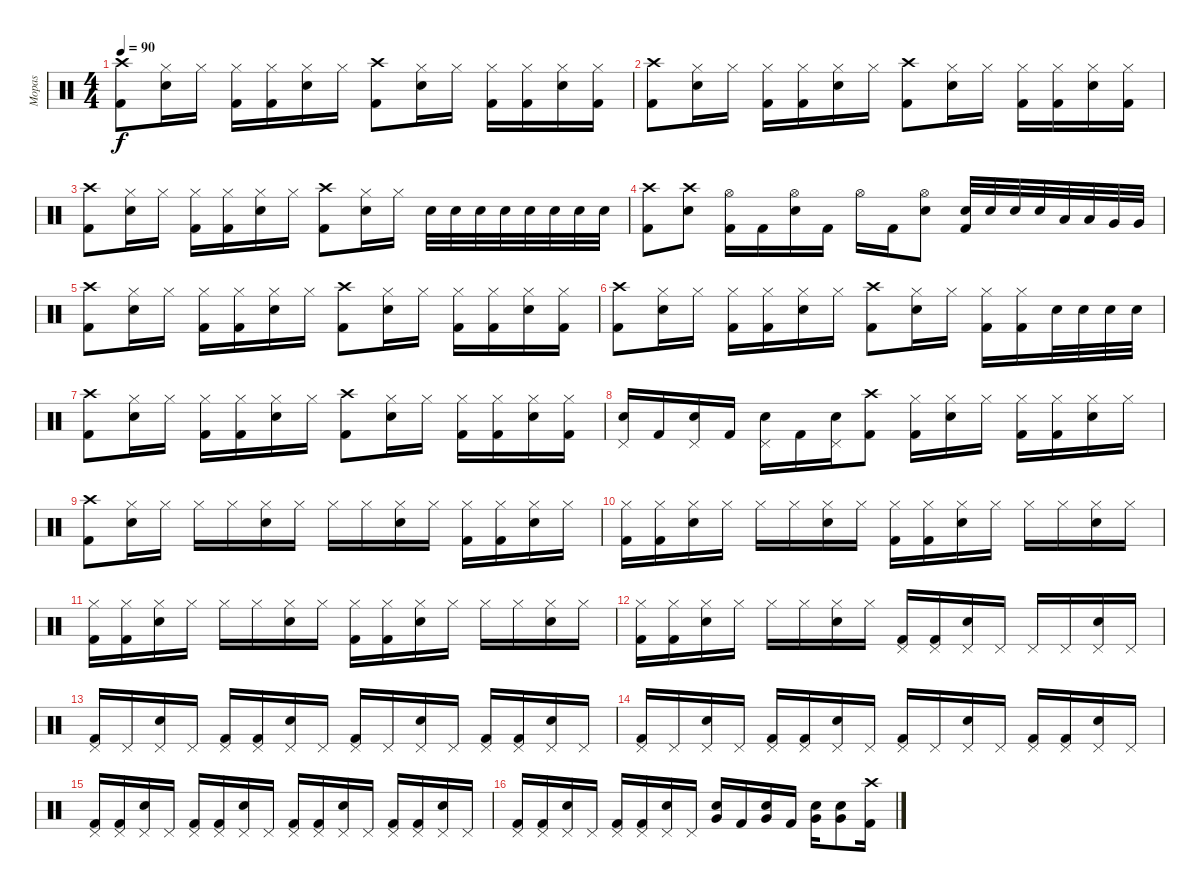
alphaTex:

\track ("Mopas" "Mopas") {instrument percussion}
\staff {score}
\articulation defaults
\ts (4 4)
\tempo 90
\clef neutral
\ks c
("Crash high (hit)" "Kick (hit) 2").8{dy f} ("Hi-Hat (closed)" "Snare (hit) 2").16 "Hi-Hat (closed)".16 ("Hi-Hat (closed)" "Kick (hit) 2").16 ("Hi-Hat (closed)" "Kick (hit) 2").16 ("Hi-Hat (closed)" "Snare (hit) 2").16 "Hi-Hat (closed)".16 ("Crash high (hit)" "Kick (hit) 2").8 ("Hi-Hat (closed)" "Snare (hit) 2").16 "Hi-Hat (closed)".16 ("Hi-Hat (closed)" "Kick (hit) 2").16 ("Hi-Hat (closed)" "Kick (hit) 2").16 ("Hi-Hat (closed)" "Snare (hit) 2").16 ("Hi-Hat (closed)" "Kick (hit) 2").16 |
("Crash high (hit)" "Kick (hit) 2").8 ("Hi-Hat (closed)" "Snare (hit) 2").16 "Hi-Hat (closed)".16 ("Hi-Hat (closed)" "Kick (hit) 2").16 ("Hi-Hat (closed)" "Kick (hit) 2").16 ("Hi-Hat (closed)" "Snare (hit) 2").16 "Hi-Hat (closed)".16 ("Crash high (hit)" "Kick (hit) 2").8 ("Hi-Hat (closed)" "Snare (hit) 2").16 "Hi-Hat (closed)".16 ("Hi-Hat (closed)" "Kick (hit) 2").16 ("Hi-Hat (closed)" "Kick (hit) 2").16 ("Hi-Hat (closed)" "Snare (hit) 2").16 ("Hi-Hat (closed)" "Kick (hit) 2").16 |
("Crash high (hit)" "Kick (hit) 2").8 ("Hi-Hat (closed)" "Snare (hit) 2").16 "Hi-Hat (closed)".16 ("Hi-Hat (closed)" "Kick (hit) 2").16 ("Hi-Hat (closed)" "Kick (hit) 2").16 ("Hi-Hat (closed)" "Snare (hit) 2").16 "Hi-Hat (closed)".16 ("Crash high (hit)" "Kick (hit) 2").8 ("Hi-Hat (closed)" "Snare (hit) 2").16 "Hi-Hat (closed)".16 "Snare (hit) 2".32 "Snare (hit) 2".32 "Snare (hit) 2".32 "Snare (hit) 2".32 "Snare (hit) 2".32 "Snare (hit) 2".32 "Snare (hit) 2".32 "Snare (hit) 2".32 |
("Crash high (hit)" "Kick (hit) 2").8 ("Crash high (hit)" "Snare (hit) 2").8 ("Hi-Hat (open)" "Kick (hit) 2").16 "Kick (hit) 2".16 ("Hi-Hat (open)" "Snare (hit) 2").16 "Kick (hit) 2".16 "Hi-Hat (open)".16 "Kick (hit) 2".16 ("Hi-Hat (open)" "Snare (hit) 2").8 ("Snare (hit) 2" "Kick (hit) 2").32 "Snare (hit) 2".32 "Snare (hit) 2".32 "Snare (hit) 2".32 "Low Tom (hit)".32 "Low Tom (hit)".32 "Very Low Tom (hit)".32 "Very Low Tom (hit)".32 |
("Crash high (hit)" "Kick (hit) 2").8 ("Hi-Hat (closed)" "Snare (hit) 2").16 "Hi-Hat (closed)".16 ("Hi-Hat (closed)" "Kick (hit) 2").16 ("Hi-Hat (closed)" "Kick (hit) 2").16 ("Hi-Hat (closed)" "Snare (hit) 2").16 "Hi-Hat (closed)".16 ("Crash high (hit)" "Kick (hit) 2").8 ("Hi-Hat (closed)" "Snare (hit) 2").16 "Hi-Hat (closed)".16 ("Hi-Hat (closed)" "Kick (hit) 2").16 ("Hi-Hat (closed)" "Kick (hit) 2").16 ("Hi-Hat (closed)" "Snare (hit) 2").16 ("Hi-Hat (closed)" "Kick (hit) 2").16 |
("Crash high (hit)" "Kick (hit) 2").8 ("Hi-Hat (closed)" "Snare (hit) 2").16 "Hi-Hat (closed)".16 ("Hi-Hat (closed)" "Kick (hit) 2").16 ("Hi-Hat (closed)" "Kick (hit) 2").16 ("Hi-Hat (closed)" "Snare (hit) 2").16 "Hi-Hat (closed)".16 ("Crash high (hit)" "Kick (hit) 2").8 ("Hi-Hat (closed)" "Snare (hit) 2").16 "Hi-Hat (closed)".16 ("Hi-Hat (closed)" "Kick (hit) 2").16 ("Hi-Hat (closed)" "Kick (hit) 2").16 "Snare (hit) 2".32 "Snare (hit) 2".32 "Snare (hit) 2".32 "Snare (hit) 2".32 |
("Crash high (hit)" "Kick (hit) 2").8 ("Hi-Hat (closed)" "Snare (hit) 2").16 "Hi-Hat (closed)".16 ("Hi-Hat (closed)" "Kick (hit) 2").16 ("Hi-Hat (closed)" "Kick (hit) 2").16 ("Hi-Hat (closed)" "Snare (hit) 2").16 "Hi-Hat (closed)".16 ("Crash high (hit)" "Kick (hit) 2").8 ("Hi-Hat (closed)" "Snare (hit) 2").16 "Hi-Hat (closed)".16 ("Hi-Hat (closed)" "Kick (hit) 2").16 ("Hi-Hat (closed)" "Kick (hit) 2").16 ("Hi-Hat (closed)" "Snare (hit) 2").16 ("Hi-Hat (closed)" "Kick (hit) 2").16 |
("Pedal Hi-Hat (hit)" "Snare (hit) 2").16 "Kick (hit) 2".16 ("Pedal Hi-Hat (hit)" "Snare (hit) 2").16 "Kick (hit) 2".16 ("Pedal Hi-Hat (hit)" "Snare (hit) 2").16 "Kick (hit) 2".16 ("Pedal Hi-Hat (hit)" "Snare (hit) 2").16 ("Crash high (hit)" "Kick (hit) 2").8 ("Hi-Hat (closed)" "Kick (hit) 2").16 ("Hi-Hat (closed)" "Snare (hit) 2").16 "Hi-Hat (closed)".16 ("Hi-Hat (closed)" "Kick (hit) 2").16 ("Hi-Hat (closed)" "Kick (hit) 2").16 ("Hi-Hat (closed)" "Snare (hit) 2").16 "Hi-Hat (closed)".16 |
("Crash high (hit)" "Kick (hit) 2").8 ("Hi-Hat (closed)" "Snare (hit) 2").16 "Hi-Hat (closed)".16 "Hi-Hat (closed)".16 "Hi-Hat (closed)".16 ("Hi-Hat (closed)" "Snare (hit) 2").16 "Hi-Hat (closed)".16 "Hi-Hat (closed)".16 "Hi-Hat (closed)".16 ("Hi-Hat (closed)" "Snare (hit) 2").16 "Hi-Hat (closed)".16 ("Hi-Hat (closed)" "Kick (hit) 2").16 ("Hi-Hat (closed)" "Kick (hit) 2").16 ("Hi-Hat (closed)" "Snare (hit) 2").16 "Hi-Hat (closed)".16 |
("Hi-Hat (closed)" "Kick (hit) 2").16 ("Hi-Hat (closed)" "Kick (hit) 2").16 ("Hi-Hat (closed)" "Snare (hit) 2").16 "Hi-Hat (closed)".16 "Hi-Hat (closed)".16 "Hi-Hat (closed)".16 ("Hi-Hat (closed)" "Snare (hit) 2").16 "Hi-Hat (closed)".16 ("Hi-Hat (closed)" "Kick (hit) 2").16 ("Hi-Hat (closed)" "Kick (hit) 2").16 ("Hi-Hat (closed)" "Snare (hit) 2").16 "Hi-Hat (closed)".16 "Hi-Hat (closed)".16 "Hi-Hat (closed)".16 ("Hi-Hat (closed)" "Snare (hit) 2").16 "Hi-Hat (closed)".16 |
("Hi-Hat (closed)" "Kick (hit) 2").16 ("Hi-Hat (closed)" "Kick (hit) 2").16 ("Hi-Hat (closed)" "Snare (hit) 2").16 "Hi-Hat (closed)".16 "Hi-Hat (closed)".16 "Hi-Hat (closed)".16 ("Hi-Hat (closed)" "Snare (hit) 2").16 "Hi-Hat (closed)".16 ("Hi-Hat (closed)" "Kick (hit) 2").16 ("Hi-Hat (closed)" "Kick (hit) 2").16 ("Hi-Hat (closed)" "Snare (hit) 2").16 "Hi-Hat (closed)".16 "Hi-Hat (closed)".16 "Hi-Hat (closed)".16 ("Hi-Hat (closed)" "Snare (hit) 2").16 "Hi-Hat (closed)".16 |
("Hi-Hat (closed)" "Kick (hit) 2").16 ("Hi-Hat (closed)" "Kick (hit) 2").16 ("Hi-Hat (closed)" "Snare (hit) 2").16 "Hi-Hat (closed)".16 "Hi-Hat (closed)".16 "Hi-Hat (closed)".16 ("Hi-Hat (closed)" "Snare (hit) 2").16 "Hi-Hat (closed)".16 ("Pedal Hi-Hat (hit)" "Kick (hit) 2").16 ("Pedal Hi-Hat (hit)" "Kick (hit) 2").16 ("Pedal Hi-Hat (hit)" "Snare (hit) 2").16 "Pedal Hi-Hat (hit)".16 "Pedal Hi-Hat (hit)".16 "Pedal Hi-Hat (hit)".16 ("Pedal Hi-Hat (hit)" "Snare (hit) 2").16 "Pedal Hi-Hat (hit)".16 |
("Pedal Hi-Hat (hit)" "Kick (hit) 2").16 "Pedal Hi-Hat (hit)".16 ("Pedal Hi-Hat (hit)" "Snare (hit) 2").16 "Pedal Hi-Hat (hit)".16 ("Pedal Hi-Hat (hit)" "Kick (hit) 2").16 ("Pedal Hi-Hat (hit)" "Kick (hit) 2").16 ("Pedal Hi-Hat (hit)" "Snare (hit) 2").16 "Pedal Hi-Hat (hit)".16 ("Pedal Hi-Hat (hit)" "Kick (hit) 2").16 "Pedal Hi-Hat (hit)".16 ("Pedal Hi-Hat (hit)" "Snare (hit) 2").16 "Pedal Hi-Hat (hit)".16 ("Pedal Hi-Hat (hit)" "Kick (hit) 2").16 ("Pedal Hi-Hat (hit)" "Kick (hit) 2").16 ("Pedal Hi-Hat (hit)" "Snare (hit) 2").16 "Pedal Hi-Hat (hit)".16 |
("Pedal Hi-Hat (hit)" "Kick (hit) 2").16 "Pedal Hi-Hat (hit)".16 ("Pedal Hi-Hat (hit)" "Snare (hit) 2").16 "Pedal Hi-Hat (hit)".16 ("Pedal Hi-Hat (hit)" "Kick (hit) 2").16 ("Pedal Hi-Hat (hit)" "Kick (hit) 2").16 ("Pedal Hi-Hat (hit)" "Snare (hit) 2").16 "Pedal Hi-Hat (hit)".16 ("Pedal Hi-Hat (hit)" "Kick (hit) 2").16 "Pedal Hi-Hat (hit)".16 ("Pedal Hi-Hat (hit)" "Snare (hit) 2").16 "Pedal Hi-Hat (hit)".16 ("Pedal Hi-Hat (hit)" "Kick (hit) 2").16 ("Pedal Hi-Hat (hit)" "Kick (hit) 2").16 ("Pedal Hi-Hat (hit)" "Snare (hit) 2").16 "Pedal Hi-Hat (hit)".16 |
("Pedal Hi-Hat (hit)" "Kick (hit) 2").16 ("Pedal Hi-Hat (hit)" "Kick (hit) 2").16 ("Pedal Hi-Hat (hit)" "Snare (hit) 2").16 "Pedal Hi-Hat (hit)".16 ("Pedal Hi-Hat (hit)" "Kick (hit) 2").16 ("Pedal Hi-Hat (hit)" "Kick (hit) 2").16 ("Pedal Hi-Hat (hit)" "Snare (hit) 2").16 "Pedal Hi-Hat (hit)".16 ("Pedal Hi-Hat (hit)" "Kick (hit) 2").16 ("Pedal Hi-Hat (hit)" "Kick (hit) 2").16 ("Pedal Hi-Hat (hit)" "Snare (hit) 2").16 "Pedal Hi-Hat (hit)".16 ("Pedal Hi-Hat (hit)" "Kick (hit) 2").16 ("Pedal Hi-Hat (hit)" "Kick (hit) 2").16 ("Pedal Hi-Hat (hit)" "Snare (hit) 2").16 "Pedal Hi-Hat (hit)".16 |
("Pedal Hi-Hat (hit)" "Kick (hit) 2").16 ("Pedal Hi-Hat (hit)" "Kick (hit) 2").16 ("Pedal Hi-Hat (hit)" "Snare (hit) 2").16 "Pedal Hi-Hat (hit)".16 ("Pedal Hi-Hat (hit)" "Kick (hit) 2").16 ("Pedal Hi-Hat (hit)" "Kick (hit) 2").16 ("Pedal Hi-Hat (hit)" "Snare (hit) 2").16 "Pedal Hi-Hat (hit)".16 ("Snare (hit) 2" "Very Low Tom (hit)").16 "Kick (hit) 2".16 ("Snare (hit) 2" "Very Low Tom (hit)").16 "Kick (hit) 2".16 ("Snare (hit) 2" "Very Low Tom (hit)").16 ("Snare (hit) 2" "Very Low Tom (hit)").8 ("Crash high (hit)" "Kick (hit) 2").16
